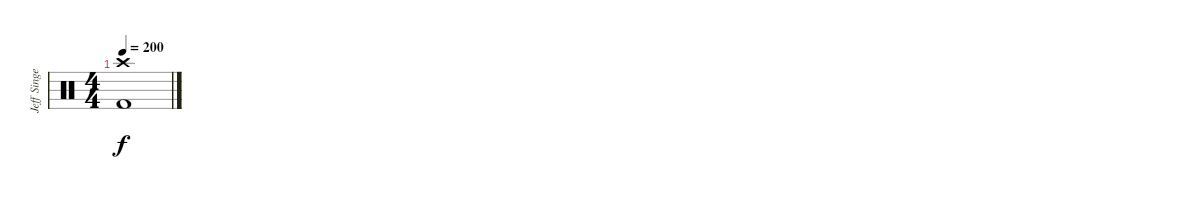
\track ("Jeff Singer" "Jeff Singe") {instrument percussion}
\staff {score}
\articulation defaults
\ts (4 4)
\tempo 200
\clef neutral
\ks c
("Crash high (hit)" "Kick (hit) 2").1{dy f}
